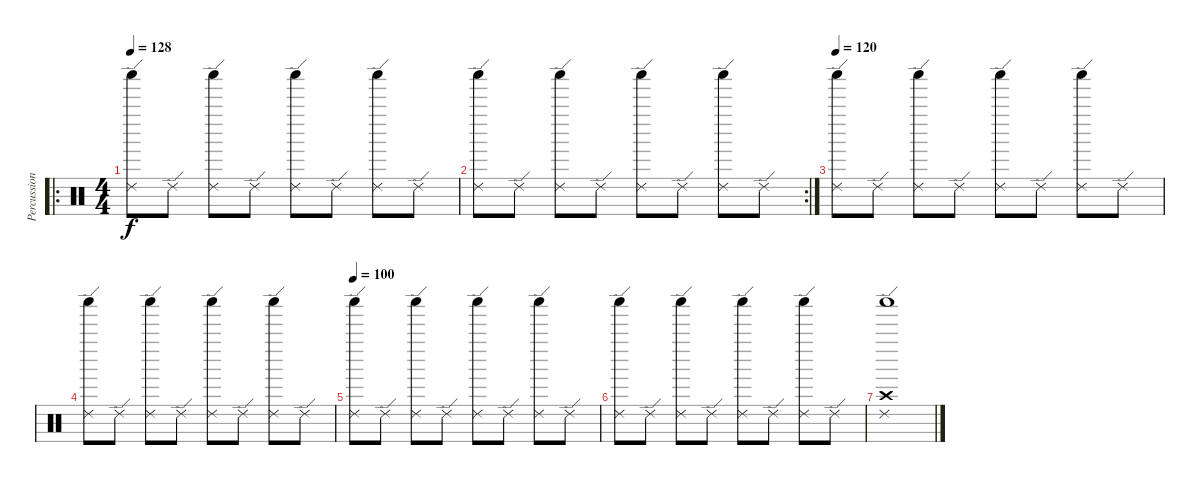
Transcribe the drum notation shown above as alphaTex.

\track ("Percussions" "Percussion") {instrument percussion}
\staff {score}
\articulation defaults
\ro
\ts (4 4)
\tempo 128
\clef neutral
\ks c
("Shaker (hit)" "Ride (edge) 2").8{dy f} "Ride (edge) 2".8 ("Shaker (hit)" "Ride (edge) 2").8 "Ride (edge) 2".8 ("Shaker (hit)" "Ride (edge) 2").8 "Ride (edge) 2".8 ("Shaker (hit)" "Ride (edge) 2").8 "Ride (edge) 2".8 |
\rc 2
("Shaker (hit)" "Ride (edge) 2").8 "Ride (edge) 2".8 ("Shaker (hit)" "Ride (edge) 2").8 "Ride (edge) 2".8 ("Shaker (hit)" "Ride (edge) 2").8 "Ride (edge) 2".8 ("Shaker (hit)" "Ride (edge) 2").8 "Ride (edge) 2".8 |
\tempo 120
("Shaker (hit)" "Ride (edge) 2").8 "Ride (edge) 2".8 ("Shaker (hit)" "Ride (edge) 2").8 "Ride (edge) 2".8 ("Shaker (hit)" "Ride (edge) 2").8 "Ride (edge) 2".8 ("Shaker (hit)" "Ride (edge) 2").8 "Ride (edge) 2".8 |
("Shaker (hit)" "Ride (edge) 2").8 "Ride (edge) 2".8 ("Shaker (hit)" "Ride (edge) 2").8 "Ride (edge) 2".8 ("Shaker (hit)" "Ride (edge) 2").8 "Ride (edge) 2".8 ("Shaker (hit)" "Ride (edge) 2").8 "Ride (edge) 2".8 |
\tempo 100
("Shaker (hit)" "Ride (edge) 2").8 "Ride (edge) 2".8 ("Shaker (hit)" "Ride (edge) 2").8 "Ride (edge) 2".8 ("Shaker (hit)" "Ride (edge) 2").8 "Ride (edge) 2".8 ("Shaker (hit)" "Ride (edge) 2").8 "Ride (edge) 2".8 |
("Shaker (hit)" "Ride (edge) 2").8 "Ride (edge) 2".8 ("Shaker (hit)" "Ride (edge) 2").8 "Ride (edge) 2".8 ("Shaker (hit)" "Ride (edge) 2").8 "Ride (edge) 2".8 ("Shaker (hit)" "Ride (edge) 2").8 "Ride (edge) 2".8 |
("Crash high (hit)" "Shaker (hit)" "Ride (edge) 2").1
